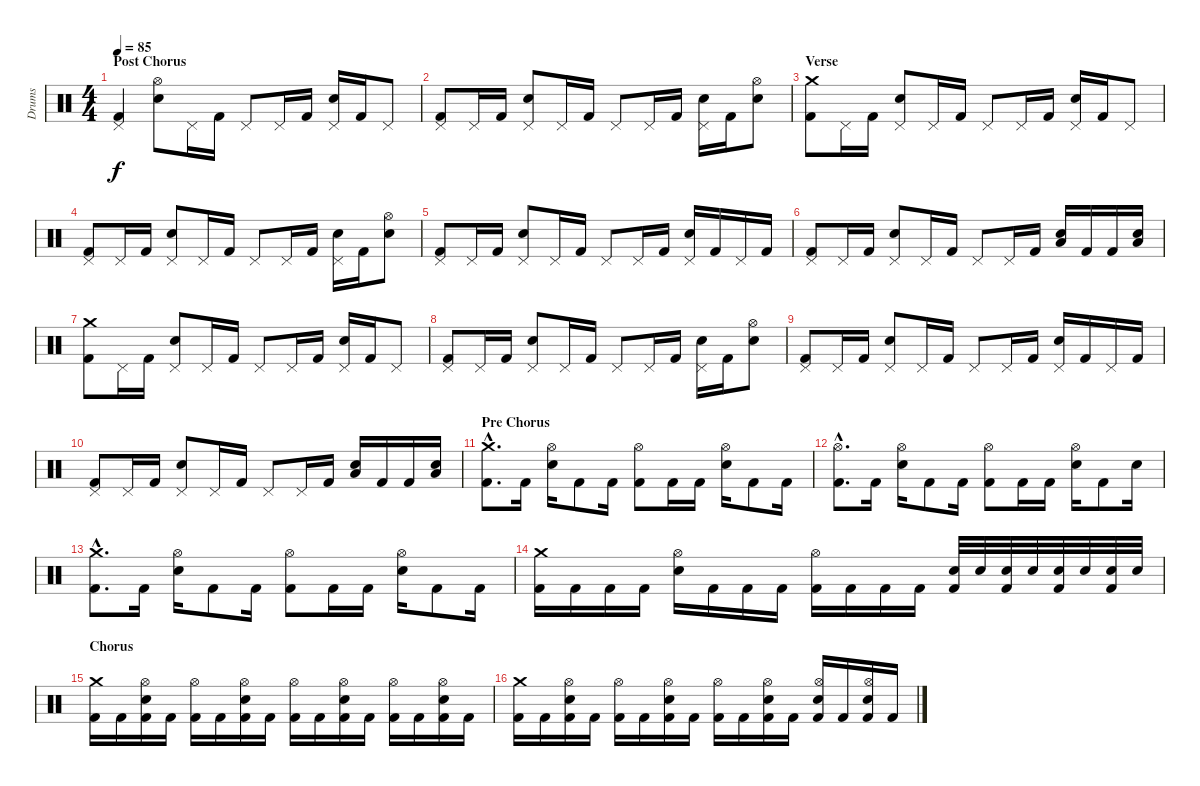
\track ("Drums" "Drums") {instrument percussion}
\staff {score}
\articulation defaults
\ts (4 4)
\section ("" "Post Chorus")
\tempo 85
\clef neutral
\ks c
("Pedal Hi-Hat (hit)" "Kick (hit) 2").4{dy f} ("Hi-Hat (open)" "Electric Snare (hit)").8 "Pedal Hi-Hat (hit)".16 "Kick (hit) 2".16 "Pedal Hi-Hat (hit)".8 "Pedal Hi-Hat (hit)".16 "Kick (hit) 2".16 ("Pedal Hi-Hat (hit)" "Electric Snare (hit)").16 "Kick (hit) 2".16 "Pedal Hi-Hat (hit)".8 |
("Pedal Hi-Hat (hit)" "Kick (hit) 2").8 "Pedal Hi-Hat (hit)".16 "Kick (hit) 2".16 ("Pedal Hi-Hat (hit)" "Electric Snare (hit)").8 "Pedal Hi-Hat (hit)".16 "Kick (hit) 2".16 "Pedal Hi-Hat (hit)".8 "Pedal Hi-Hat (hit)".16 "Kick (hit) 2".16 ("Pedal Hi-Hat (hit)" "Electric Snare (hit)").16 "Kick (hit) 2".16 ("Hi-Hat (open)" "Electric Snare (hit)").8 |
\section ("" "Verse")
("Crash medium (hit)" "Kick (hit) 2").8 "Pedal Hi-Hat (hit)".16 "Kick (hit) 2".16 ("Pedal Hi-Hat (hit)" "Electric Snare (hit)").8 "Pedal Hi-Hat (hit)".16 "Kick (hit) 2".16 "Pedal Hi-Hat (hit)".8 "Pedal Hi-Hat (hit)".16 "Kick (hit) 2".16 ("Pedal Hi-Hat (hit)" "Electric Snare (hit)").16 "Kick (hit) 2".16 "Pedal Hi-Hat (hit)".8 |
("Pedal Hi-Hat (hit)" "Kick (hit) 2").8 "Pedal Hi-Hat (hit)".16 "Kick (hit) 2".16 ("Pedal Hi-Hat (hit)" "Electric Snare (hit)").8 "Pedal Hi-Hat (hit)".16 "Kick (hit) 2".16 "Pedal Hi-Hat (hit)".8 "Pedal Hi-Hat (hit)".16 "Kick (hit) 2".16 ("Pedal Hi-Hat (hit)" "Electric Snare (hit)").16 "Kick (hit) 2".16 ("Hi-Hat (open)" "Electric Snare (hit)").8 |
("Pedal Hi-Hat (hit)" "Kick (hit) 2").8 "Pedal Hi-Hat (hit)".16 "Kick (hit) 2".16 ("Pedal Hi-Hat (hit)" "Electric Snare (hit)").8 "Pedal Hi-Hat (hit)".16 "Kick (hit) 2".16 "Pedal Hi-Hat (hit)".8 "Pedal Hi-Hat (hit)".16 "Kick (hit) 2".16 ("Pedal Hi-Hat (hit)" "Electric Snare (hit)").16 "Kick (hit) 2".16 "Pedal Hi-Hat (hit)".16 "Kick (hit) 2".16 |
("Pedal Hi-Hat (hit)" "Kick (hit) 2").8 "Pedal Hi-Hat (hit)".16 "Kick (hit) 2".16 ("Pedal Hi-Hat (hit)" "Electric Snare (hit)").8 "Pedal Hi-Hat (hit)".16 "Kick (hit) 2".16 "Pedal Hi-Hat (hit)".8 "Pedal Hi-Hat (hit)".16 "Kick (hit) 2".16 ("Electric Snare (hit)" "Low Tom (hit)").16 "Kick (hit) 2".16 "Kick (hit) 2".16 ("Electric Snare (hit)" "Low Tom (hit)").16 |
("Crash medium (hit)" "Kick (hit) 2").8 "Pedal Hi-Hat (hit)".16 "Kick (hit) 2".16 ("Pedal Hi-Hat (hit)" "Electric Snare (hit)").8 "Pedal Hi-Hat (hit)".16 "Kick (hit) 2".16 "Pedal Hi-Hat (hit)".8 "Pedal Hi-Hat (hit)".16 "Kick (hit) 2".16 ("Pedal Hi-Hat (hit)" "Electric Snare (hit)").16 "Kick (hit) 2".16 "Pedal Hi-Hat (hit)".8 |
("Pedal Hi-Hat (hit)" "Kick (hit) 2").8 "Pedal Hi-Hat (hit)".16 "Kick (hit) 2".16 ("Pedal Hi-Hat (hit)" "Electric Snare (hit)").8 "Pedal Hi-Hat (hit)".16 "Kick (hit) 2".16 "Pedal Hi-Hat (hit)".8 "Pedal Hi-Hat (hit)".16 "Kick (hit) 2".16 ("Pedal Hi-Hat (hit)" "Electric Snare (hit)").16 "Kick (hit) 2".16 ("Hi-Hat (open)" "Electric Snare (hit)").8 |
("Pedal Hi-Hat (hit)" "Kick (hit) 2").8 "Pedal Hi-Hat (hit)".16 "Kick (hit) 2".16 ("Pedal Hi-Hat (hit)" "Electric Snare (hit)").8 "Pedal Hi-Hat (hit)".16 "Kick (hit) 2".16 "Pedal Hi-Hat (hit)".8 "Pedal Hi-Hat (hit)".16 "Kick (hit) 2".16 ("Pedal Hi-Hat (hit)" "Electric Snare (hit)").16 "Kick (hit) 2".16 "Pedal Hi-Hat (hit)".16 "Kick (hit) 2".16 |
("Pedal Hi-Hat (hit)" "Kick (hit) 2").8 "Pedal Hi-Hat (hit)".16 "Kick (hit) 2".16 ("Pedal Hi-Hat (hit)" "Electric Snare (hit)").8 "Pedal Hi-Hat (hit)".16 "Kick (hit) 2".16 "Pedal Hi-Hat (hit)".8 "Pedal Hi-Hat (hit)".16 "Kick (hit) 2".16 ("Electric Snare (hit)" "Low Tom (hit)").16 "Kick (hit) 2".16 "Kick (hit) 2".16 ("Electric Snare (hit)" "Low Tom (hit)").16 |
\section ("" "Pre Chorus")
("Crash medium (hit)"{hac} "Kick (hit) 2"{hac}).8{d} "Kick (hit) 2".16 ("Hi-Hat (open)" "Electric Snare (hit)").16 "Kick (hit) 2".8 "Kick (hit) 2".16 ("Hi-Hat (open)" "Kick (hit) 2").8 "Kick (hit) 2".16 "Kick (hit) 2".16 ("Hi-Hat (open)" "Electric Snare (hit)").16 "Kick (hit) 2".8 "Kick (hit) 2".16 |
("Hi-Hat (open)"{hac} "Kick (hit) 2"{hac}).8{d} "Kick (hit) 2".16 ("Hi-Hat (open)" "Electric Snare (hit)").16 "Kick (hit) 2".8 "Kick (hit) 2".16 ("Hi-Hat (open)" "Kick (hit) 2").8 "Kick (hit) 2".16 "Kick (hit) 2".16 ("Hi-Hat (open)" "Electric Snare (hit)").16 "Kick (hit) 2".8 "Electric Snare (hit)".16 |
("Crash medium (hit)"{hac} "Kick (hit) 2"{hac}).8{d} "Kick (hit) 2".16 ("Hi-Hat (open)" "Electric Snare (hit)").16 "Kick (hit) 2".8 "Kick (hit) 2".16 ("Hi-Hat (open)" "Kick (hit) 2").8 "Kick (hit) 2".16 "Kick (hit) 2".16 ("Hi-Hat (open)" "Electric Snare (hit)").16 "Kick (hit) 2".8 "Kick (hit) 2".16 |
("Crash medium (hit)" "Kick (hit) 2").16 "Kick (hit) 2".16 "Kick (hit) 2".16 "Kick (hit) 2".16 ("Hi-Hat (open)" "Electric Snare (hit)").16 "Kick (hit) 2".16 "Kick (hit) 2".16 "Kick (hit) 2".16 ("Hi-Hat (open)" "Kick (hit) 2").16 "Kick (hit) 2".16 "Kick (hit) 2".16 "Kick (hit) 2".16 ("Electric Snare (hit)" "Kick (hit) 2").32 "Electric Snare (hit)".32 ("Electric Snare (hit)" "Kick (hit) 2").32 "Electric Snare (hit)".32 ("Electric Snare (hit)" "Kick (hit) 2").32 "Electric Snare (hit)".32 ("Electric Snare (hit)" "Kick (hit) 2").32 "Electric Snare (hit)".32 |
\section ("" "Chorus")
("Crash medium (hit)" "Kick (hit) 2").16 "Kick (hit) 2".16 ("Hi-Hat (open)" "Electric Snare (hit)" "Kick (hit) 2").16 "Kick (hit) 2".16 ("Hi-Hat (open)" "Kick (hit) 2").16 "Kick (hit) 2".16 ("Hi-Hat (open)" "Electric Snare (hit)" "Kick (hit) 2").16 "Kick (hit) 2".16 ("Hi-Hat (open)" "Kick (hit) 2").16 "Kick (hit) 2".16 ("Hi-Hat (open)" "Electric Snare (hit)" "Kick (hit) 2").16 "Kick (hit) 2".16 ("Hi-Hat (open)" "Kick (hit) 2").16 "Kick (hit) 2".16 ("Hi-Hat (open)" "Electric Snare (hit)" "Kick (hit) 2").16 "Kick (hit) 2".16 |
("Crash medium (hit)" "Kick (hit) 2").16 "Kick (hit) 2".16 ("Hi-Hat (open)" "Electric Snare (hit)" "Kick (hit) 2").16 "Kick (hit) 2".16 ("Hi-Hat (open)" "Kick (hit) 2").16 "Kick (hit) 2".16 ("Hi-Hat (open)" "Electric Snare (hit)" "Kick (hit) 2").16 "Kick (hit) 2".16 ("Hi-Hat (open)" "Kick (hit) 2").16 "Kick (hit) 2".16 ("Hi-Hat (open)" "Electric Snare (hit)" "Kick (hit) 2").16 "Kick (hit) 2".16 ("Hi-Hat (open)" "Electric Snare (hit)" "Kick (hit) 2").16 "Kick (hit) 2".16 ("Hi-Hat (open)" "Electric Snare (hit)" "Kick (hit) 2").16 "Kick (hit) 2".16
